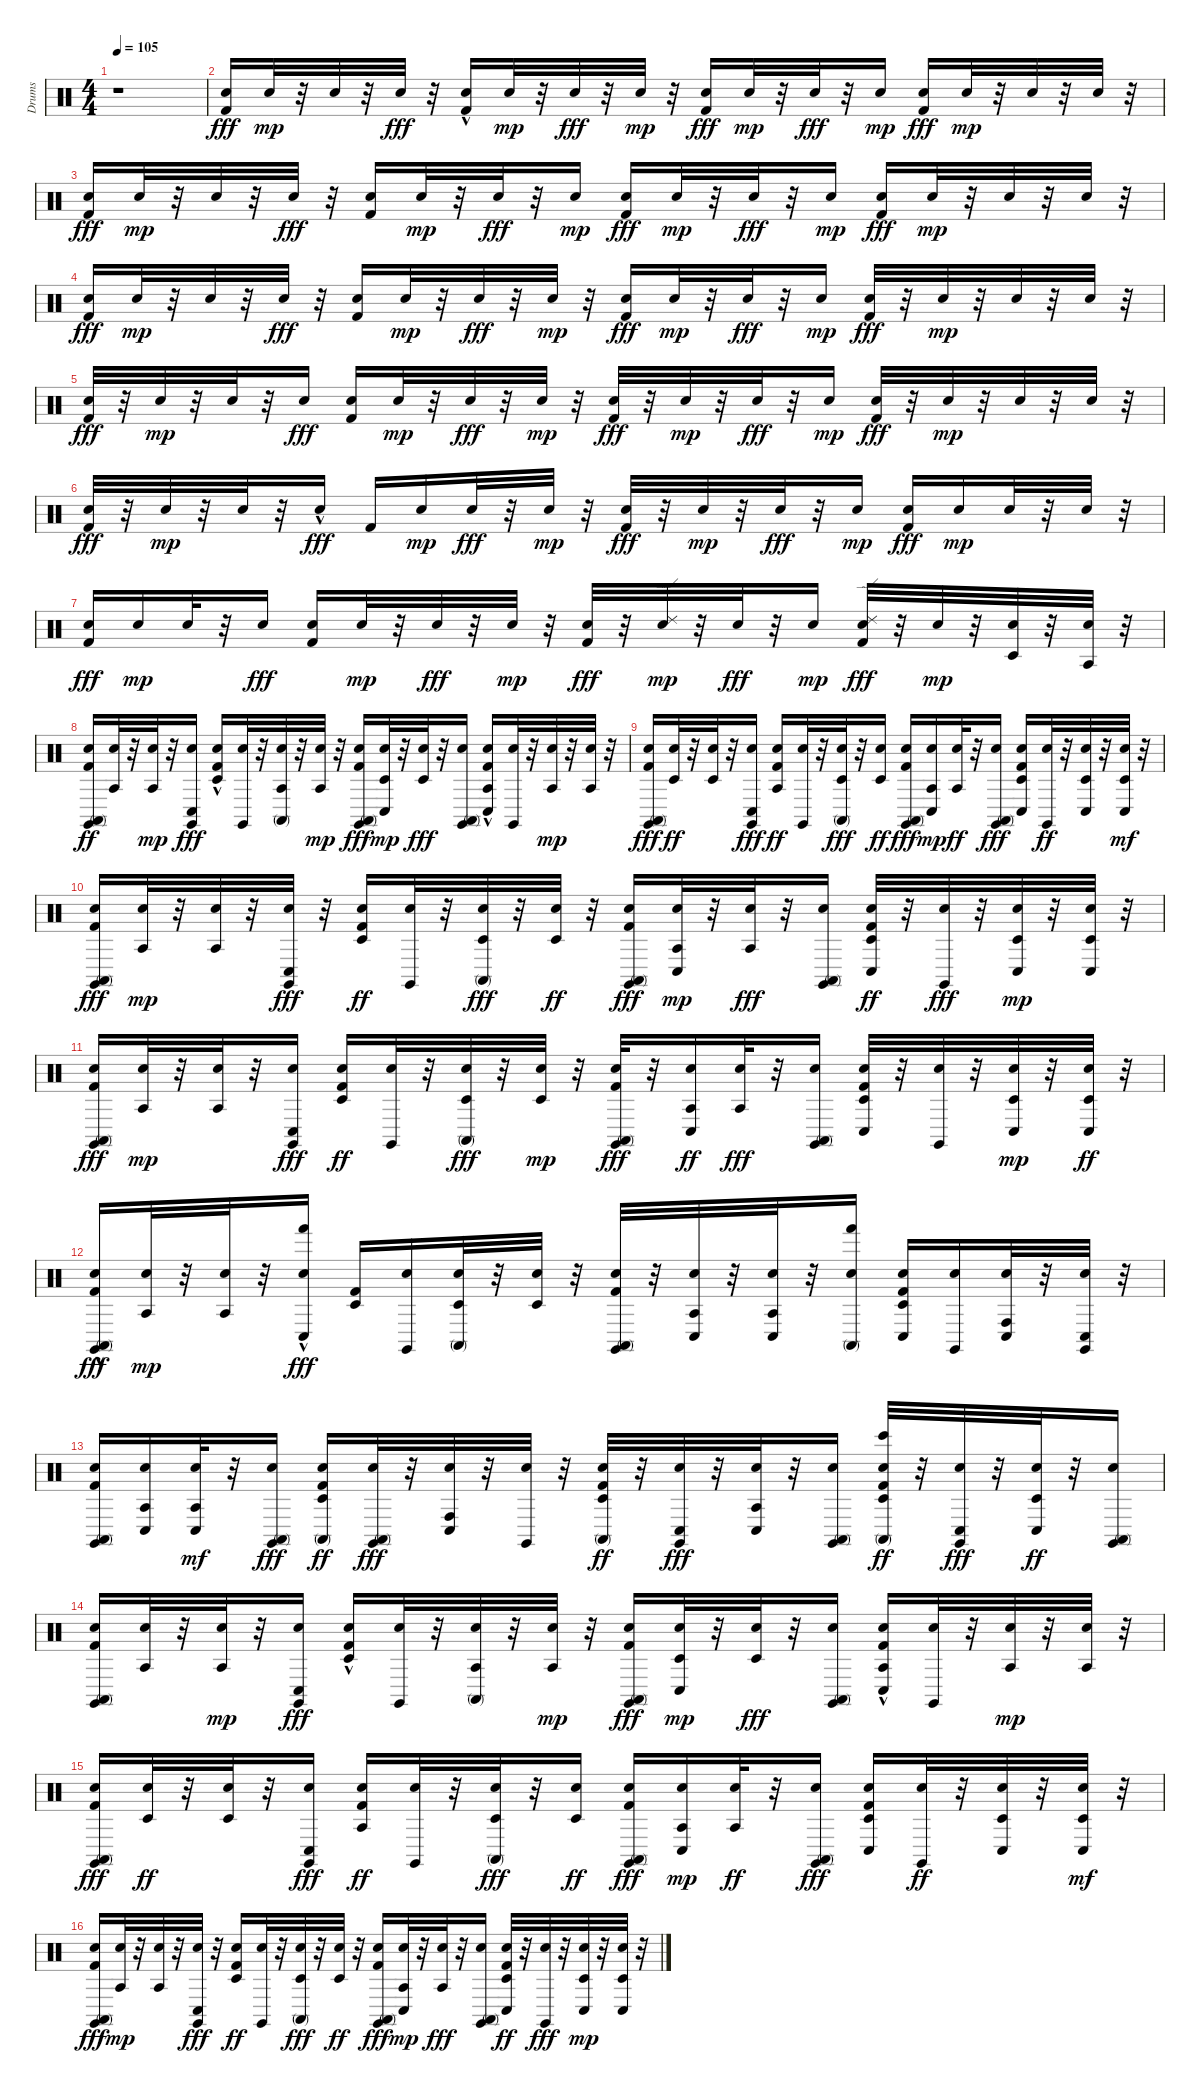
\track ("Drums" "Drums") {instrument percussion}
\staff {score}
\articulation defaults
\ts (4 4)
\tempo 105
\clef neutral
\ks c
r.1{dy fff} |
("Snare (hit) 2" "Kick (hit) 2").16 "Snare (hit) 2".32{dy mp} r.32 "Snare (hit) 2".32 r.32 "Snare (hit) 2".32{dy fff} r.32 ("Snare (hit) 2" "Kick (hit) 2"{hac}).16 "Snare (hit) 2".32{dy mp} r.32 "Snare (hit) 2".32{dy fff} r.32 "Snare (hit) 2".32{dy mp} r.32 ("Snare (hit) 2" "Kick (hit) 2").16{dy fff} "Snare (hit) 2".32{dy mp} r.32 "Snare (hit) 2".32{dy fff} r.32 "Snare (hit) 2".16{dy mp} ("Snare (hit) 2" "Kick (hit) 2").16{dy fff} "Snare (hit) 2".32{dy mp} r.32 "Snare (hit) 2".32 r.32 "Snare (hit) 2".32 r.32 |
("Snare (hit) 2" "Kick (hit) 2").16{dy fff} "Snare (hit) 2".32{dy mp} r.32 "Snare (hit) 2".32 r.32 "Snare (hit) 2".32{dy fff} r.32 ("Snare (hit) 2" "Kick (hit) 2").16 "Snare (hit) 2".32{dy mp} r.32 "Snare (hit) 2".32{dy fff} r.32 "Snare (hit) 2".16{dy mp} ("Snare (hit) 2" "Kick (hit) 2").16{dy fff} "Snare (hit) 2".32{dy mp} r.32 "Snare (hit) 2".32{dy fff} r.32 "Snare (hit) 2".16{dy mp} ("Snare (hit) 2" "Kick (hit) 2").16{dy fff} "Snare (hit) 2".32{dy mp} r.32 "Snare (hit) 2".32 r.32 "Snare (hit) 2".32 r.32 |
("Kick (hit) 2" "Snare (hit) 2").16{dy fff} "Snare (hit) 2".32{dy mp} r.32 "Snare (hit) 2".32 r.32 "Snare (hit) 2".32{dy fff} r.32 ("Snare (hit) 2" "Kick (hit) 2").16 "Snare (hit) 2".32{dy mp} r.32 "Snare (hit) 2".32{dy fff} r.32 "Snare (hit) 2".32{dy mp} r.32 ("Snare (hit) 2" "Kick (hit) 2").16{dy fff} "Snare (hit) 2".32{dy mp} r.32 "Snare (hit) 2".32{dy fff} r.32 "Snare (hit) 2".16{dy mp} ("Kick (hit) 2" "Snare (hit) 2").32{dy fff} r.32 "Snare (hit) 2".32{dy mp} r.32 "Snare (hit) 2".32 r.32 "Snare (hit) 2".32 r.32 |
("Kick (hit) 2" "Snare (hit) 2").32{dy fff} r.32 "Snare (hit) 2".32{dy mp} r.32 "Snare (hit) 2".32 r.32 "Snare (hit) 2".16{dy fff} ("Snare (hit) 2" "Kick (hit) 2").16 "Snare (hit) 2".32{dy mp} r.32 "Snare (hit) 2".32{dy fff} r.32 "Snare (hit) 2".32{dy mp} r.32 ("Snare (hit) 2" "Kick (hit) 2").32{dy fff} r.32 "Snare (hit) 2".32{dy mp} r.32 "Snare (hit) 2".32{dy fff} r.32 "Snare (hit) 2".16{dy mp} ("Kick (hit) 2" "Snare (hit) 2").32{dy fff} r.32 "Snare (hit) 2".32{dy mp} r.32 "Snare (hit) 2".32 r.32 "Snare (hit) 2".32 r.32 |
("Snare (hit) 2" "Kick (hit) 2").32{dy fff} r.32 "Snare (hit) 2".32{dy mp} r.32 "Snare (hit) 2".32 r.32 "Snare (hit) 2"{hac}.16{dy fff} "Kick (hit) 2".16 "Snare (hit) 2".16{dy mp} "Snare (hit) 2".32{dy fff} r.32 "Snare (hit) 2".32{dy mp} r.32 ("Snare (hit) 2" "Kick (hit) 2").32{dy fff} r.32 "Snare (hit) 2".32{dy mp} r.32 "Snare (hit) 2".32{dy fff} r.32 "Snare (hit) 2".16{dy mp} ("Snare (hit) 2" "Kick (hit) 2").16{dy fff} "Snare (hit) 2".16{dy mp} "Snare (hit) 2".32 r.32 "Snare (hit) 2".32 r.32 |
("Snare (hit) 2" "Kick (hit) 2").16{dy fff} "Snare (hit) 2".16{dy mp} "Snare (hit) 2".32 r.32 "Snare (hit) 2".16{dy fff} ("Snare (hit) 2" "Kick (hit) 2").16 "Snare (hit) 2".32{dy mp} r.32 "Snare (hit) 2".32{dy fff} r.32 "Snare (hit) 2".32{dy mp} r.32 ("Snare (hit) 2" "Kick (hit) 2").32{dy fff} r.32 ("Ride (edge) 2" "Snare (hit) 2").32{dy mp} r.32 "Snare (hit) 2".32{dy fff} r.32 "Snare (hit) 2".16{dy mp} ("Ride (edge) 2" "Snare (hit) 2" "Kick (hit) 2").32{dy fff} r.32 "Snare (hit) 2".32{dy mp} r.32 ("Timbale low (hit)" "Snare (hit) 2").32 r.32 ("Agogo tow (hit)" "Snare (hit) 2").32 r.32 |
("Conga high (mute)" "Snare (hit) 2" "Kick (hit) 2" "Claves (hit)").16{dy ff} ("Snare (hit) 2" "Agogo tow (hit)").32 r.32 ("Snare (hit) 2" "Agogo tow (hit)").32{dy mp} r.32 ("Snare (hit) 2" "Conga low (hit)" "Claves (hit)").16{dy fff} ("Timbale low (hit)" "Snare (hit) 2" "Kick (hit) 2"{hac}).16 ("Snare (hit) 2" "Claves (hit)").32 r.32 ("Conga high (mute)" "Agogo tow (hit)" "Snare (hit) 2").32 r.32 ("Agogo tow (hit)" "Snare (hit) 2").32{dy mp} r.32 ("Snare (hit) 2" "Kick (hit) 2" "Conga high (mute)" "Claves (hit)").16{dy fff} ("Snare (hit) 2" "Timbale low (hit)" "Conga low (hit)").32{dy mp} r.32 ("Timbale low (hit)" "Snare (hit) 2").32{dy fff} r.32 ("Conga high (mute)" "Snare (hit) 2" "Claves (hit)").16 ("Conga low (hit)"{hac} "Agogo tow (hit)" "Snare (hit) 2" "Kick (hit) 2").16 ("Snare (hit) 2" "Claves (hit)").32 r.32 ("Agogo tow (hit)" "Snare (hit) 2").32{dy mp} r.32 ("Agogo tow (hit)" "Snare (hit) 2").32 r.32 |
("Conga high (mute)" "Snare (hit) 2" "Kick (hit) 2" "Claves (hit)").16{dy fff} ("Snare (hit) 2" "Timbale low (hit)").32{dy ff} r.32 ("Snare (hit) 2" "Timbale low (hit)").32 r.32 ("Conga low (hit)" "Snare (hit) 2" "Claves (hit)").16{dy fff} ("Snare (hit) 2" "Kick (hit) 2" "Agogo tow (hit)").16{dy ff} ("Snare (hit) 2" "Claves (hit)").32 r.32 ("Conga high (mute)" "Timbale low (hit)" "Snare (hit) 2").32{dy fff} r.32 ("Snare (hit) 2" "Timbale low (hit)").16{dy ff} ("Conga high (mute)" "Snare (hit) 2" "Kick (hit) 2" "Claves (hit)").16{dy fff} ("Conga low (hit)" "Agogo tow (hit)" "Snare (hit) 2").16{dy mp} ("Snare (hit) 2" "Agogo tow (hit)").32{dy ff} r.32 ("Conga high (mute)" "Snare (hit) 2" "Claves (hit)").16{dy fff} ("Timbale low (hit)" "Snare (hit) 2" "Kick (hit) 2" "Conga low (hit)").16 ("Snare (hit) 2" "Claves (hit)").32{dy ff} r.32 ("Timbale low (hit)" "Snare (hit) 2" "Conga low (hit)").32 r.32 ("Timbale low (hit)" "Snare (hit) 2" "Conga low (hit)").32{dy mf} r.32 |
("Kick (hit) 2" "Snare (hit) 2" "Conga high (mute)" "Claves (hit)").16{dy fff} ("Agogo tow (hit)" "Snare (hit) 2").32{dy mp} r.32 ("Agogo tow (hit)" "Snare (hit) 2").32 r.32 ("Conga low (hit)" "Snare (hit) 2" "Claves (hit)").32{dy fff} r.32 ("Snare (hit) 2" "Kick (hit) 2" "Timbale low (hit)").16{dy ff} ("Snare (hit) 2" "Claves (hit)").32 r.32 ("Conga high (mute)" "Timbale low (hit)" "Snare (hit) 2").32{dy fff} r.32 ("Snare (hit) 2" "Timbale low (hit)").32{dy ff} r.32 ("Conga high (mute)" "Snare (hit) 2" "Kick (hit) 2" "Claves (hit)").16{dy fff} ("Conga low (hit)" "Agogo tow (hit)" "Snare (hit) 2").32{dy mp} r.32 ("Agogo tow (hit)" "Snare (hit) 2").32{dy fff} r.32 ("Conga high (mute)" "Snare (hit) 2" "Claves (hit)").16 ("Kick (hit) 2" "Snare (hit) 2" "Timbale low (hit)" "Conga low (hit)").32{dy ff} r.32 ("Snare (hit) 2" "Claves (hit)").32{dy fff} r.32 ("Timbale low (hit)" "Snare (hit) 2" "Conga low (hit)").32{dy mp} r.32 ("Conga low (hit)" "Timbale low (hit)" "Snare (hit) 2").32 r.32 |
("Kick (hit) 2" "Snare (hit) 2" "Conga high (mute)" "Claves (hit)").16{dy fff} ("Agogo tow (hit)" "Snare (hit) 2").32{dy mp} r.32 ("Agogo tow (hit)" "Snare (hit) 2").32 r.32 ("Conga low (hit)" "Snare (hit) 2" "Claves (hit)").16{dy fff} ("Snare (hit) 2" "Kick (hit) 2" "Timbale low (hit)").16{dy ff} ("Snare (hit) 2" "Claves (hit)").32 r.32 ("Conga high (mute)" "Timbale low (hit)" "Snare (hit) 2").32{dy fff} r.32 ("Timbale low (hit)" "Snare (hit) 2").32{dy mp} r.32 ("Snare (hit) 2" "Kick (hit) 2" "Conga high (mute)" "Claves (hit)").32{dy fff} r.32 ("Agogo tow (hit)" "Snare (hit) 2" "Conga low (hit)").16{dy ff} ("Agogo tow (hit)" "Snare (hit) 2").32{dy fff} r.32 ("Conga high (mute)" "Snare (hit) 2" "Claves (hit)").16 ("Timbale low (hit)" "Kick (hit) 2" "Snare (hit) 2" "Conga low (hit)").32 r.32 ("Snare (hit) 2" "Claves (hit)").32 r.32 ("Conga low (hit)" "Timbale low (hit)" "Snare (hit) 2").32{dy mp} r.32 ("Conga low (hit)" "Snare (hit) 2" "Timbale low (hit)").32{dy ff} r.32 |
("Conga high (mute)"{hac} "Snare (hit) 2" "Kick (hit) 2" "Claves (hit)").16{dy fff} ("Agogo tow (hit)" "Snare (hit) 2").32{dy mp} r.32 ("Agogo tow (hit)" "Snare (hit) 2").32 r.32 ("Conga low (hit)" "Hand (hit)" "Snare (hit) 2"{hac}).16{dy fff} ("Kick (hit) 2" "Timbale low (hit)").16 ("Snare (hit) 2" "Claves (hit)").16 ("Conga high (mute)" "Timbale low (hit)" "Snare (hit) 2").32 r.32 ("Snare (hit) 2" "Timbale low (hit)").32 r.32 ("Conga high (mute)" "Snare (hit) 2" "Kick (hit) 2" "Claves (hit)").32 r.32 ("Conga low (hit)" "Snare (hit) 2" "Agogo tow (hit)").32 r.32 ("Conga low (hit)" "Snare (hit) 2" "Agogo tow (hit)").32 r.32 ("Conga high (mute)" "Snare (hit) 2" "Hand (hit)").16 ("Snare (hit) 2" "Kick (hit) 2" "Timbale low (hit)" "Conga low (hit)").16 ("Snare (hit) 2" "Claves (hit)").16 ("Snare (hit) 2" "Conga high (hit)" "Conga low (hit)").32 r.32 ("Conga low (hit)" "Snare (hit) 2" "Claves (hit)").32 r.32 |
("Snare (hit) 2" "Kick (hit) 2" "Conga high (mute)" "Claves (hit)").16 ("Conga low (hit)" "Snare (hit) 2" "Agogo tow (hit)").16 ("Snare (hit) 2" "Agogo tow (hit)" "Conga low (hit)").32{dy mf} r.32 ("Conga high (mute)" "Snare (hit) 2" "Claves (hit)").16{dy fff} ("Snare (hit) 2" "Kick (hit) 2" "Timbale low (hit)" "Conga high (mute)").16{dy ff} ("Snare (hit) 2" "Conga high (mute)" "Claves (hit)").32{dy fff} r.32 ("Snare (hit) 2" "Conga high (hit)" "Conga low (hit)").32 r.32 ("Snare (hit) 2" "Claves (hit)").32 r.32 ("Timbale low (hit)" "Snare (hit) 2" "Kick (hit) 2" "Conga high (mute)").32{dy ff} r.32 ("Conga low (hit)" "Snare (hit) 2" "Claves (hit)").32{dy fff} r.32 ("Agogo tow (hit)" "Snare (hit) 2" "Conga low (hit)").32 r.32 ("Snare (hit) 2" "Conga high (mute)" "Claves (hit)").16 ("Timbale low (hit)" "Snare (hit) 2" "Kick (hit) 2" "Conga high (mute)" "Bongo High (hit)").32{dy ff} r.32 ("Snare (hit) 2" "Conga low (hit)" "Claves (hit)").32{dy fff} r.32 ("Snare (hit) 2" "Timbale low (hit)" "Conga low (hit)").32{dy ff} r.32 ("Conga high (mute)" "Snare (hit) 2" "Claves (hit)").16 |
("Conga high (mute)" "Snare (hit) 2" "Kick (hit) 2" "Claves (hit)").16 ("Snare (hit) 2" "Agogo tow (hit)").32 r.32 ("Snare (hit) 2" "Agogo tow (hit)").32{dy mp} r.32 ("Snare (hit) 2" "Conga low (hit)" "Claves (hit)").16{dy fff} ("Timbale low (hit)" "Snare (hit) 2" "Kick (hit) 2"{hac}).16 ("Snare (hit) 2" "Claves (hit)").32 r.32 ("Conga high (mute)" "Agogo tow (hit)" "Snare (hit) 2").32 r.32 ("Agogo tow (hit)" "Snare (hit) 2").32{dy mp} r.32 ("Snare (hit) 2" "Kick (hit) 2" "Conga high (mute)" "Claves (hit)").16{dy fff} ("Snare (hit) 2" "Timbale low (hit)" "Conga low (hit)").32{dy mp} r.32 ("Timbale low (hit)" "Snare (hit) 2").32{dy fff} r.32 ("Conga high (mute)" "Snare (hit) 2" "Claves (hit)").16 ("Conga low (hit)"{hac} "Agogo tow (hit)" "Snare (hit) 2" "Kick (hit) 2").16 ("Snare (hit) 2" "Claves (hit)").32 r.32 ("Agogo tow (hit)" "Snare (hit) 2").32{dy mp} r.32 ("Agogo tow (hit)" "Snare (hit) 2").32 r.32 |
("Conga high (mute)" "Snare (hit) 2" "Kick (hit) 2" "Claves (hit)").16{dy fff} ("Snare (hit) 2" "Timbale low (hit)").32{dy ff} r.32 ("Snare (hit) 2" "Timbale low (hit)").32 r.32 ("Conga low (hit)" "Snare (hit) 2" "Claves (hit)").16{dy fff} ("Snare (hit) 2" "Kick (hit) 2" "Agogo tow (hit)").16{dy ff} ("Snare (hit) 2" "Claves (hit)").32 r.32 ("Conga high (mute)" "Timbale low (hit)" "Snare (hit) 2").32{dy fff} r.32 ("Snare (hit) 2" "Timbale low (hit)").16{dy ff} ("Conga high (mute)" "Snare (hit) 2" "Kick (hit) 2" "Claves (hit)").16{dy fff} ("Conga low (hit)" "Agogo tow (hit)" "Snare (hit) 2").16{dy mp} ("Snare (hit) 2" "Agogo tow (hit)").32{dy ff} r.32 ("Conga high (mute)" "Snare (hit) 2" "Claves (hit)").16{dy fff} ("Timbale low (hit)" "Snare (hit) 2" "Kick (hit) 2" "Conga low (hit)").16 ("Snare (hit) 2" "Claves (hit)").32{dy ff} r.32 ("Timbale low (hit)" "Snare (hit) 2" "Conga low (hit)").32 r.32 ("Timbale low (hit)" "Snare (hit) 2" "Conga low (hit)").32{dy mf} r.32 |
("Kick (hit) 2" "Snare (hit) 2" "Conga high (mute)" "Claves (hit)").16{dy fff} ("Agogo tow (hit)" "Snare (hit) 2").32{dy mp} r.32 ("Agogo tow (hit)" "Snare (hit) 2").32 r.32 ("Conga low (hit)" "Snare (hit) 2" "Claves (hit)").32{dy fff} r.32 ("Snare (hit) 2" "Kick (hit) 2" "Timbale low (hit)").16{dy ff} ("Snare (hit) 2" "Claves (hit)").32 r.32 ("Conga high (mute)" "Timbale low (hit)" "Snare (hit) 2").32{dy fff} r.32 ("Snare (hit) 2" "Timbale low (hit)").32{dy ff} r.32 ("Conga high (mute)" "Snare (hit) 2" "Kick (hit) 2" "Claves (hit)").16{dy fff} ("Conga low (hit)" "Agogo tow (hit)" "Snare (hit) 2").32{dy mp} r.32 ("Agogo tow (hit)" "Snare (hit) 2").32{dy fff} r.32 ("Conga high (mute)" "Snare (hit) 2" "Claves (hit)").16 ("Kick (hit) 2" "Snare (hit) 2" "Timbale low (hit)" "Conga low (hit)").32{dy ff} r.32 ("Snare (hit) 2" "Claves (hit)").32{dy fff} r.32 ("Timbale low (hit)" "Snare (hit) 2" "Conga low (hit)").32{dy mp} r.32 ("Conga low (hit)" "Timbale low (hit)" "Snare (hit) 2").32 r.32
